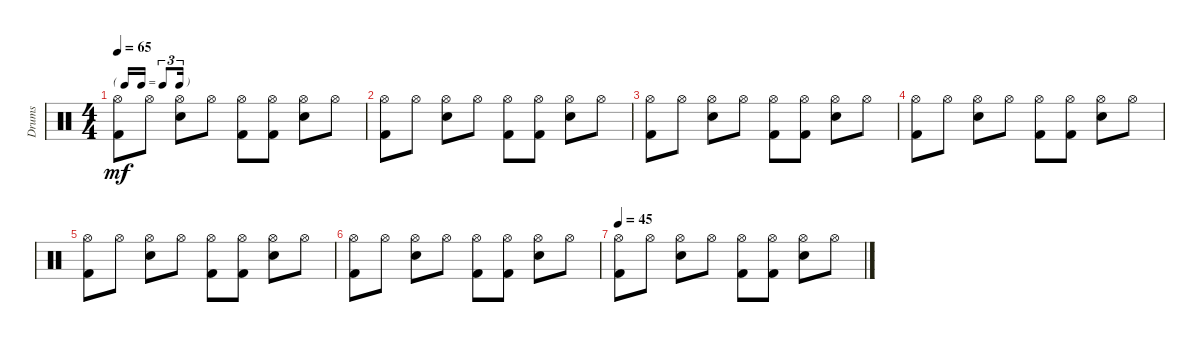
\track ("Drums" "Drums") {instrument percussion}
\staff {score}
\articulation defaults
\ts (4 4)
\tf triplet16th
\tempo 65
\clef neutral
\ks aminor
("Hi-Hat (open)" "Kick (hit) 2").8{dy mf} "Hi-Hat (open)".8 ("Hi-Hat (open)" "Snare (hit) 2").8 "Hi-Hat (open)".8 ("Hi-Hat (open)" "Kick (hit) 2").8 ("Hi-Hat (open)" "Kick (hit) 2").8 ("Hi-Hat (open)" "Snare (hit) 2").8 "Hi-Hat (open)".8 |
("Hi-Hat (open)" "Kick (hit) 2").8 "Hi-Hat (open)".8 ("Hi-Hat (open)" "Snare (hit) 2").8 "Hi-Hat (open)".8 ("Hi-Hat (open)" "Kick (hit) 2").8 ("Hi-Hat (open)" "Kick (hit) 2").8 ("Hi-Hat (open)" "Snare (hit) 2").8 "Hi-Hat (open)".8 |
("Hi-Hat (open)" "Kick (hit) 2").8 "Hi-Hat (open)".8 ("Hi-Hat (open)" "Snare (hit) 2").8 "Hi-Hat (open)".8 ("Hi-Hat (open)" "Kick (hit) 2").8 ("Hi-Hat (open)" "Kick (hit) 2").8 ("Hi-Hat (open)" "Snare (hit) 2").8 "Hi-Hat (open)".8 |
("Hi-Hat (open)" "Kick (hit) 2").8 "Hi-Hat (open)".8 ("Hi-Hat (open)" "Snare (hit) 2").8 "Hi-Hat (open)".8 ("Hi-Hat (open)" "Kick (hit) 2").8 ("Hi-Hat (open)" "Kick (hit) 2").8 ("Hi-Hat (open)" "Snare (hit) 2").8 "Hi-Hat (open)".8 |
("Hi-Hat (open)" "Kick (hit) 2").8 "Hi-Hat (open)".8 ("Hi-Hat (open)" "Snare (hit) 2").8 "Hi-Hat (open)".8 ("Hi-Hat (open)" "Kick (hit) 2").8 ("Hi-Hat (open)" "Kick (hit) 2").8 ("Hi-Hat (open)" "Snare (hit) 2").8 "Hi-Hat (open)".8 |
("Hi-Hat (open)" "Kick (hit) 2").8 "Hi-Hat (open)".8 ("Hi-Hat (open)" "Snare (hit) 2").8 "Hi-Hat (open)".8 ("Hi-Hat (open)" "Kick (hit) 2").8 ("Hi-Hat (open)" "Kick (hit) 2").8 ("Hi-Hat (open)" "Snare (hit) 2").8 "Hi-Hat (open)".8 |
\tempo 45
("Hi-Hat (open)" "Kick (hit) 2").8 "Hi-Hat (open)".8 ("Hi-Hat (open)" "Snare (hit) 2").8 "Hi-Hat (open)".8 ("Hi-Hat (open)" "Kick (hit) 2").8 ("Hi-Hat (open)" "Kick (hit) 2").8 ("Hi-Hat (open)" "Snare (hit) 2").8 "Hi-Hat (open)".8
